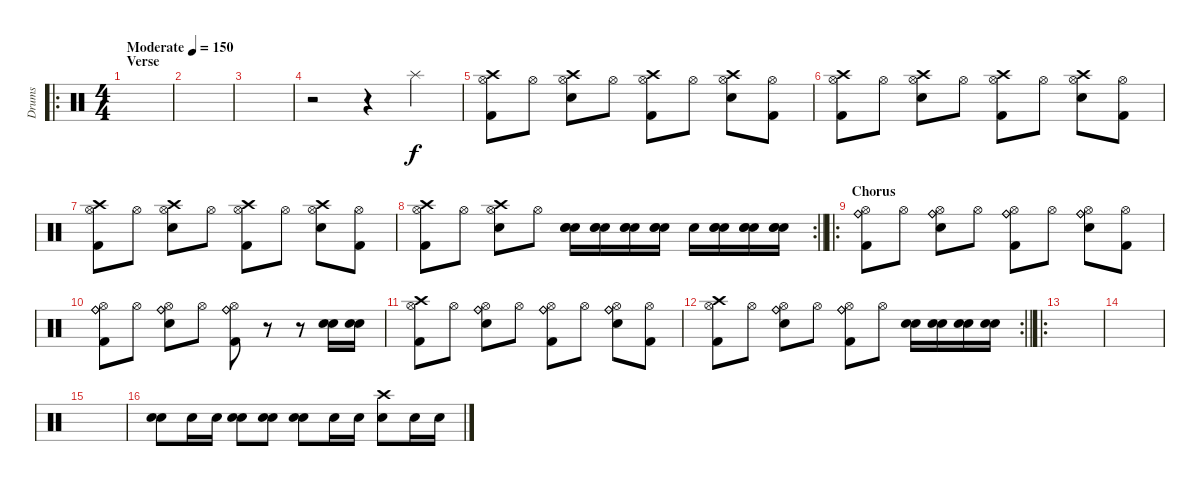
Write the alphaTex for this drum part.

\track ("Drums" "Drums") {instrument percussion}
\staff {score}
\articulation defaults
\ro
\ts (4 4)
\section ("" "Verse")
\tempo (150 "Moderate")
\clef neutral
\ks c
|
|
|
r.2 r.4 "Splash (hit)".4 |
("Crash high (hit)" "Hi-Hat (open)" "Kick (hit) 2").8 "Hi-Hat (open)".8 ("Crash high (hit)" "Hi-Hat (open)" "Electric Snare (hit)").8 "Hi-Hat (open)".8 ("Crash high (hit)" "Hi-Hat (open)" "Kick (hit) 2").8 "Hi-Hat (open)".8 ("Crash high (hit)" "Hi-Hat (open)" "Electric Snare (hit)").8 ("Hi-Hat (open)" "Kick (hit) 2").8 |
("Crash high (hit)" "Hi-Hat (open)" "Kick (hit) 2").8 "Hi-Hat (open)".8 ("Crash high (hit)" "Hi-Hat (open)" "Electric Snare (hit)").8 "Hi-Hat (open)".8 ("Crash high (hit)" "Hi-Hat (open)" "Kick (hit) 2").8 "Hi-Hat (open)".8 ("Crash high (hit)" "Hi-Hat (open)" "Electric Snare (hit)").8 ("Hi-Hat (open)" "Kick (hit) 2").8 |
("Crash high (hit)" "Hi-Hat (open)" "Kick (hit) 2").8 "Hi-Hat (open)".8 ("Crash high (hit)" "Hi-Hat (open)" "Electric Snare (hit)").8 "Hi-Hat (open)".8 ("Crash high (hit)" "Hi-Hat (open)" "Kick (hit) 2").8 "Hi-Hat (open)".8 ("Crash high (hit)" "Hi-Hat (open)" "Electric Snare (hit)").8 ("Hi-Hat (open)" "Kick (hit) 2").8 |
\rc 2
\barLineRight lightlight
("Crash high (hit)" "Hi-Hat (open)" "Kick (hit) 2").8 "Hi-Hat (open)".8 ("Crash high (hit)" "Hi-Hat (open)" "Electric Snare (hit)").8 "Hi-Hat (open)".8 ("Snare (hit) 2" "Snare (hit) 2" "Electric Snare (hit)").16 ("Snare (hit) 2" "Snare (hit) 2" "Electric Snare (hit)").16 ("Snare (hit) 2" "Snare (hit) 2" "Electric Snare (hit)").16 ("Snare (hit) 2" "Snare (hit) 2" "Electric Snare (hit)").16 "Electric Snare (hit)".16 ("Snare (hit) 2" "Snare (hit) 2" "Electric Snare (hit)").16 ("Snare (hit) 2" "Snare (hit) 2" "Electric Snare (hit)").16 ("Snare (hit) 2" "Snare (hit) 2" "Electric Snare (hit)").16 |
\ro
\section ("" "Chorus")
("Ride (bell)" "Ride (bell)" "Hi-Hat (open)" "Kick (hit) 2").8 "Hi-Hat (open)".8 ("Ride (bell)" "Ride (bell)" "Hi-Hat (open)" "Electric Snare (hit)").8 "Hi-Hat (open)".8 ("Ride (bell)" "Ride (bell)" "Hi-Hat (open)" "Kick (hit) 2").8 "Hi-Hat (open)".8 ("Ride (bell)" "Ride (bell)" "Hi-Hat (open)" "Electric Snare (hit)").8 ("Hi-Hat (open)" "Kick (hit) 2").8 |
("Ride (bell)" "Ride (bell)" "Hi-Hat (open)" "Kick (hit) 2").8 "Hi-Hat (open)".8 ("Ride (bell)" "Ride (bell)" "Hi-Hat (open)" "Electric Snare (hit)").8 "Hi-Hat (open)".8 ("Ride (bell)" "Ride (bell)" "Hi-Hat (open)" "Kick (hit) 2").8 r.8 r.8 ("Electric Snare (hit)" "Electric Snare (hit)").16 ("Snare (hit) 2" "Snare (hit) 2").16 |
("Crash high (hit)" "Hi-Hat (open)" "Kick (hit) 2").8 "Hi-Hat (open)".8 ("Ride (bell)" "Ride (bell)" "Hi-Hat (open)" "Electric Snare (hit)").8 "Hi-Hat (open)".8 ("Ride (bell)" "Ride (bell)" "Hi-Hat (open)" "Kick (hit) 2").8 "Hi-Hat (open)".8 ("Ride (bell)" "Ride (bell)" "Hi-Hat (open)" "Electric Snare (hit)").8 ("Hi-Hat (open)" "Kick (hit) 2").8 |
\rc 2
\barLineRight lightlight
("Crash high (hit)" "Hi-Hat (open)" "Kick (hit) 2").8 "Hi-Hat (open)".8 ("Ride (bell)" "Ride (bell)" "Hi-Hat (open)" "Electric Snare (hit)").8 "Hi-Hat (open)".8 ("Ride (bell)" "Ride (bell)" "Hi-Hat (open)" "Kick (hit) 2").8 "Hi-Hat (open)".8 ("Electric Snare (hit)" "Electric Snare (hit)").16 ("Electric Snare (hit)" "Electric Snare (hit)").16 ("Electric Snare (hit)" "Electric Snare (hit)").16 ("Electric Snare (hit)" "Electric Snare (hit)").16 |
\ro
\section ("" "")
|
|
|
("Electric Snare (hit)" "Snare (hit) 2").8 "Electric Snare (hit)".16 "Electric Snare (hit)".16 ("Electric Snare (hit)" "Snare (hit) 2").8 ("Electric Snare (hit)" "Snare (hit) 2").8 ("Electric Snare (hit)" "Snare (hit) 2").8 "Electric Snare (hit)".16 "Electric Snare (hit)".16 ("Crash high (hit)" "Snare (hit) 2").8 "Electric Snare (hit)".16 "Electric Snare (hit)".16
